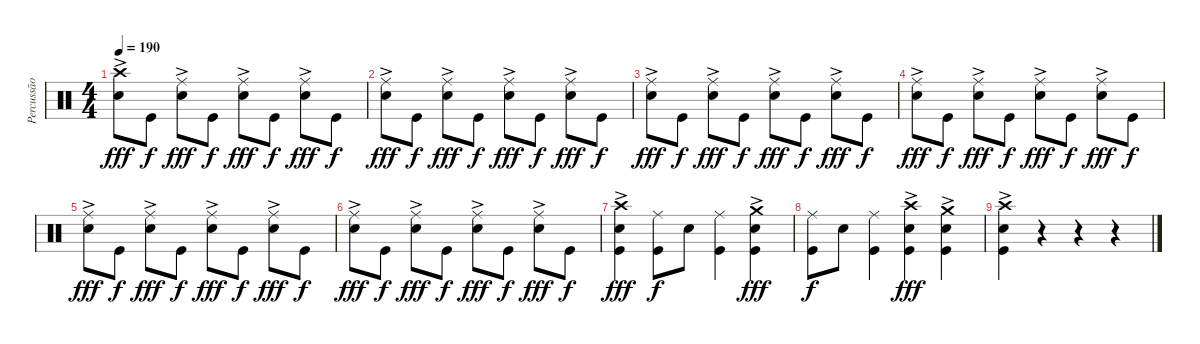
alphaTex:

\track ("Percussão" "Percussão") {instrument percussion}
\staff {score}
\articulation defaults
\ts (4 4)
\tempo 190
\clef neutral
\ks c
("Crash high (hit)"{ac} "Snare (hit) 2").8{dy fff} "Kick (hit)".8{dy f} ("Ride (middle)"{ac} "Snare (hit) 2").8{dy fff} "Kick (hit)".8{dy f} ("Ride (middle)"{ac} "Snare (hit) 2").8{dy fff} "Kick (hit)".8{dy f} ("Ride (middle)"{ac} "Snare (hit) 2").8{dy fff} "Kick (hit)".8{dy f} |
("Ride (middle)"{ac} "Snare (hit) 2").8{dy fff} "Kick (hit)".8{dy f} ("Ride (middle)"{ac} "Snare (hit) 2").8{dy fff} "Kick (hit)".8{dy f} ("Ride (middle)"{ac} "Snare (hit) 2").8{dy fff} "Kick (hit)".8{dy f} ("Ride (middle)"{ac} "Snare (hit) 2").8{dy fff} "Kick (hit)".8{dy f} |
("Ride (middle)"{ac} "Snare (hit) 2").8{dy fff} "Kick (hit)".8{dy f} ("Ride (middle)"{ac} "Snare (hit) 2").8{dy fff} "Kick (hit)".8{dy f} ("Ride (middle)"{ac} "Snare (hit) 2").8{dy fff} "Kick (hit)".8{dy f} ("Ride (middle)"{ac} "Snare (hit) 2").8{dy fff} "Kick (hit)".8{dy f} |
("Ride (middle)"{ac} "Snare (hit) 2").8{dy fff} "Kick (hit)".8{dy f} ("Ride (middle)"{ac} "Snare (hit) 2").8{dy fff} "Kick (hit)".8{dy f} ("Ride (middle)"{ac} "Snare (hit) 2").8{dy fff} "Kick (hit)".8{dy f} ("Ride (middle)"{ac} "Snare (hit) 2").8{dy fff} "Kick (hit)".8{dy f} |
("Ride (middle)"{ac} "Snare (hit) 2").8{dy fff} "Kick (hit)".8{dy f} ("Ride (middle)"{ac} "Snare (hit) 2").8{dy fff} "Kick (hit)".8{dy f} ("Ride (middle)"{ac} "Snare (hit) 2").8{dy fff} "Kick (hit)".8{dy f} ("Ride (middle)"{ac} "Snare (hit) 2").8{dy fff} "Kick (hit)".8{dy f} |
("Ride (middle)"{ac} "Snare (hit) 2").8{dy fff} "Kick (hit)".8{dy f} ("Ride (middle)"{ac} "Snare (hit) 2").8{dy fff} "Kick (hit)".8{dy f} ("Ride (middle)"{ac} "Snare (hit) 2").8{dy fff} "Kick (hit)".8{dy f} ("Ride (middle)"{ac} "Snare (hit) 2").8{dy fff} "Kick (hit)".8{dy f} |
("Crash high (hit)"{ac} "Snare (hit) 2" "Kick (hit)").4{dy fff} ("Ride (middle)" "Kick (hit)").8{dy f} "Snare (hit) 2".8 ("Ride (middle)" "Kick (hit)").4 ("Crash medium (hit)"{ac} "Snare (hit) 2" "Kick (hit)").4{dy fff} |
("Ride (middle)" "Kick (hit)").8{dy f} "Snare (hit) 2".8 ("Ride (middle)" "Kick (hit)").4 ("Crash high (hit)"{ac} "Snare (hit) 2" "Kick (hit)").4{dy fff} ("Crash medium (hit)"{ac} "Snare (hit) 2" "Kick (hit)").4 |
("Crash high (hit)"{ac} "Snare (hit) 2" "Kick (hit)").4 r.4 r.4 r.4
